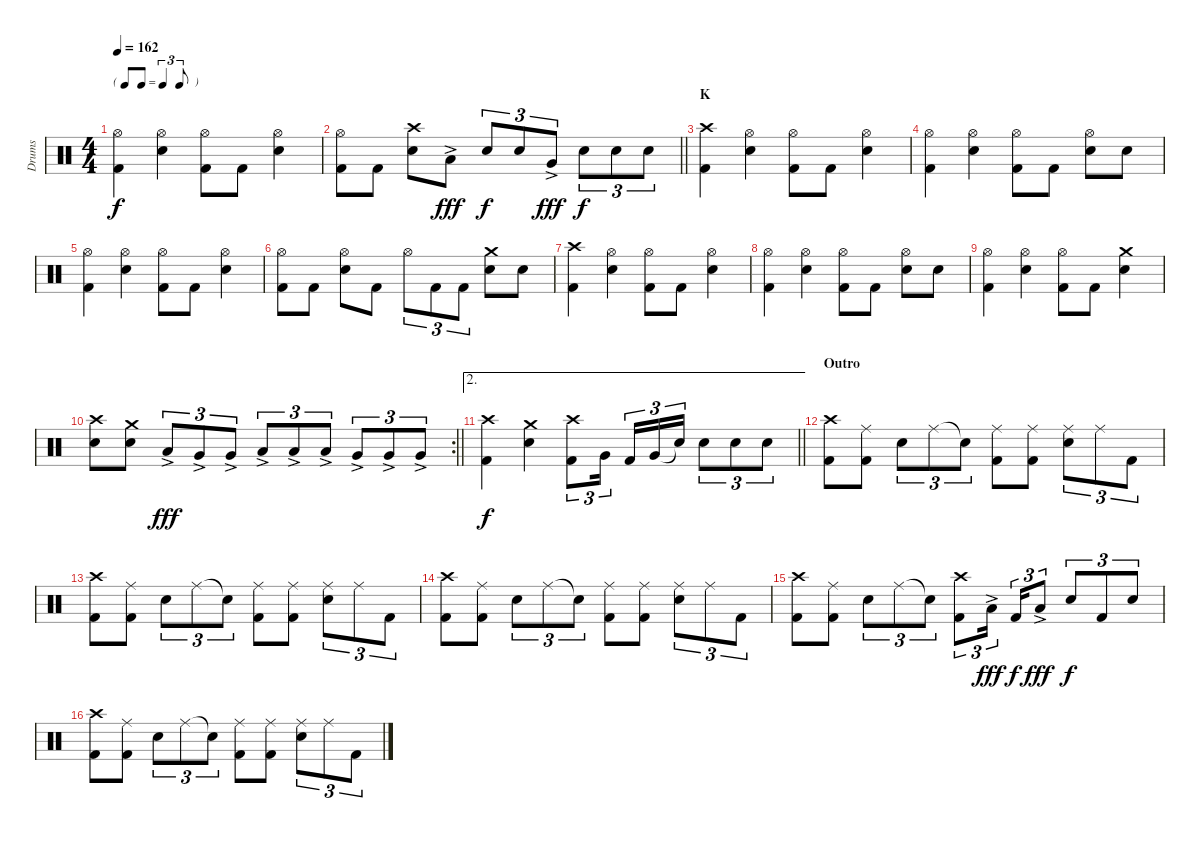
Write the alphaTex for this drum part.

\track ("Drums" "Drums") {instrument percussion}
\staff {score}
\articulation defaults
\ts (4 4)
\tf triplet8th
\tempo 162
\clef neutral
\ks c
("Hi-Hat (open)" "Kick (hit) 2").4{dy f} ("Hi-Hat (open)" "Snare (hit) 2").4 ("Hi-Hat (open)" "Kick (hit) 2").8 "Kick (hit) 2".8 ("Hi-Hat (open)" "Snare (hit) 2").4 |
\barLineRight lightlight
("Hi-Hat (open)" "Kick (hit) 2").8 "Kick (hit) 2".8 ("Crash high (hit)" "Snare (hit) 2").8 "Low Tom (hit)"{ac}.8{dy fff} "Snare (hit) 2".8{tu (3 2) dy f} "Snare (hit) 2".8{tu (3 2)} "Very Low Tom (hit)"{ac}.8{tu (3 2) dy fff} "Snare (hit) 2".8{tu (3 2) dy f} "Snare (hit) 2".8{tu (3 2)} "Snare (hit) 2".8{tu (3 2)} |
\section ("" "K")
("Crash high (hit)" "Kick (hit) 2").4 ("Hi-Hat (open)" "Snare (hit) 2").4 ("Hi-Hat (open)" "Kick (hit) 2").8 "Kick (hit) 2".8 ("Hi-Hat (open)" "Snare (hit) 2").4 |
("Hi-Hat (open)" "Kick (hit) 2").4 ("Hi-Hat (open)" "Snare (hit) 2").4 ("Hi-Hat (open)" "Kick (hit) 2").8 "Kick (hit) 2".8 ("Hi-Hat (open)" "Snare (hit) 2").8 "Snare (hit) 2".8 |
("Hi-Hat (open)" "Kick (hit) 2").4 ("Hi-Hat (open)" "Snare (hit) 2").4 ("Hi-Hat (open)" "Kick (hit) 2").8 "Kick (hit) 2".8 ("Hi-Hat (open)" "Snare (hit) 2").4 |
("Hi-Hat (open)" "Kick (hit) 2").8 "Kick (hit) 2".8 ("Hi-Hat (open)" "Snare (hit) 2").8 "Kick (hit) 2".8 "Hi-Hat (open)".8{tu (3 2)} "Kick (hit) 2".8{tu (3 2)} "Kick (hit) 2".8{tu (3 2)} ("Crash medium (hit)" "Snare (hit) 2").8 "Snare (hit) 2".8 |
("Crash high (hit)" "Kick (hit) 2").4 ("Hi-Hat (open)" "Snare (hit) 2").4 ("Hi-Hat (open)" "Kick (hit) 2").8 "Kick (hit) 2".8 ("Hi-Hat (open)" "Snare (hit) 2").4 |
("Hi-Hat (open)" "Kick (hit) 2").4 ("Hi-Hat (open)" "Snare (hit) 2").4 ("Hi-Hat (open)" "Kick (hit) 2").8 "Kick (hit) 2".8 ("Hi-Hat (open)" "Snare (hit) 2").8 "Snare (hit) 2".8 |
("Hi-Hat (open)" "Kick (hit) 2").4 ("Hi-Hat (open)" "Snare (hit) 2").4 ("Hi-Hat (open)" "Kick (hit) 2").8 "Kick (hit) 2".8 ("Crash medium (hit)" "Snare (hit) 2").4 |
\rc 2
\barLineRight lightlight
("Crash high (hit)" "Snare (hit) 2").8 ("Crash medium (hit)" "Snare (hit) 2").8 "Low Tom (hit)"{ac}.8{tu (3 2) dy fff} "Very Low Tom (hit)"{ac}.8{tu (3 2)} "Very Low Tom (hit)"{ac}.8{tu (3 2)} "Low Tom (hit)"{ac}.8{tu (3 2)} "Low Tom (hit)"{ac}.8{tu (3 2)} "Low Tom (hit)"{ac}.8{tu (3 2)} "Very Low Tom (hit)"{ac}.8{tu (3 2)} "Very Low Tom (hit)"{ac}.8{tu (3 2)} "Very Low Tom (hit)"{ac}.8{tu (3 2)} |
\ae 2
\barLineRight lightlight
("Crash high (hit)" "Kick (hit) 2").4{dy f} ("Crash medium (hit)" "Snare (hit) 2").4 ("Crash high (hit)" "Kick (hit) 2").8{tu (3 2)} "Very Low Tom (hit)".16{tu (3 2)} "Kick (hit) 2".16{tu (3 2)} "Very Low Tom (hit)".16{tu (3 2)} "Snare (hit)"{t}.16{tu (3 2)} "Snare (hit) 2".8{tu (3 2)} "Snare (hit) 2".8{tu (3 2)} "Snare (hit) 2".8{tu (3 2)} |
\section ("" "Outro")
("Crash high (hit)" "Kick (hit) 2").8 ("Ride (middle)" "Kick (hit) 2").8 "Snare (hit) 2".8{tu (3 2)} "Ride (middle)".8{tu (3 2)} "Snare (hit)"{t}.8{tu (3 2)} ("Ride (middle)" "Kick (hit) 2").8 ("Ride (middle)" "Kick (hit) 2").8 ("Ride (middle)" "Snare (hit) 2").8{tu (3 2)} "Ride (middle)".8{tu (3 2)} "Kick (hit) 2".8{tu (3 2)} |
("Crash high (hit)" "Kick (hit) 2").8 ("Ride (middle)" "Kick (hit) 2").8 "Snare (hit) 2".8{tu (3 2)} "Ride (middle)".8{tu (3 2)} "Snare (hit)"{t}.8{tu (3 2)} ("Ride (middle)" "Kick (hit) 2").8 ("Ride (middle)" "Kick (hit) 2").8 ("Ride (middle)" "Snare (hit) 2").8{tu (3 2)} "Ride (middle)".8{tu (3 2)} "Kick (hit) 2".8{tu (3 2)} |
("Crash high (hit)" "Kick (hit) 2").8 ("Ride (middle)" "Kick (hit) 2").8 "Snare (hit) 2".8{tu (3 2)} "Ride (middle)".8{tu (3 2)} "Snare (hit)"{t}.8{tu (3 2)} ("Ride (middle)" "Kick (hit) 2").8 ("Ride (middle)" "Kick (hit) 2").8 ("Ride (middle)" "Snare (hit) 2").8{tu (3 2)} "Ride (middle)".8{tu (3 2)} "Kick (hit) 2".8{tu (3 2)} |
("Crash high (hit)" "Kick (hit) 2").8 ("Ride (middle)" "Kick (hit) 2").8 "Snare (hit) 2".8{tu (3 2)} "Ride (middle)".8{tu (3 2)} "Snare (hit)"{t}.8{tu (3 2)} ("Crash high (hit)" "Kick (hit) 2").8{tu (3 2)} "Low Tom (hit)"{ac}.16{tu (3 2) dy fff} "Kick (hit) 2".16{tu (3 2) dy f} "Low Tom (hit)"{ac}.8{tu (3 2) dy fff} "Snare (hit) 2".8{tu (3 2) dy f} "Kick (hit) 2".8{tu (3 2)} "Snare (hit) 2".8{tu (3 2)} |
("Crash high (hit)" "Kick (hit) 2").8 ("Ride (middle)" "Kick (hit) 2").8 "Snare (hit) 2".8{tu (3 2)} "Ride (middle)".8{tu (3 2)} "Snare (hit)"{t}.8{tu (3 2)} ("Ride (middle)" "Kick (hit) 2").8 ("Ride (middle)" "Kick (hit) 2").8 ("Ride (middle)" "Snare (hit) 2").8{tu (3 2)} "Ride (middle)".8{tu (3 2)} "Kick (hit) 2".8{tu (3 2)}
